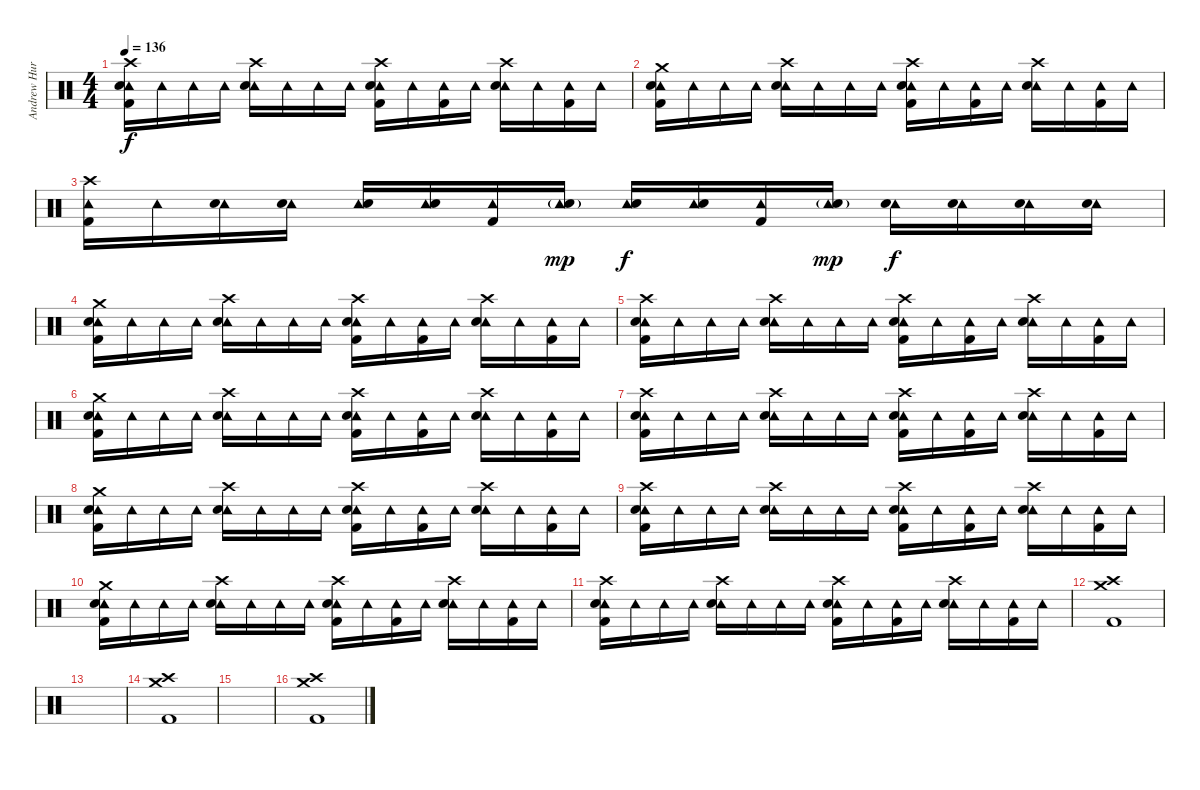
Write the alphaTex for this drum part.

\track ("Andrew Hurley (Drums)" "Andrew Hur") {instrument percussion}
\staff {score}
\articulation defaults
\ts (4 4)
\tempo 136
\clef neutral
\ks c
("Crash high (hit)" "Tambourine (hit)" "Snare (hit) 2" "Kick (hit) 2").16{dy f} "Tambourine (hit)".16 "Tambourine (hit)".16 "Tambourine (hit)".16 ("Crash high (hit)" "Tambourine (hit)" "Snare (hit) 2").16 "Tambourine (hit)".16 "Tambourine (hit)".16 "Tambourine (hit)".16 ("Crash high (hit)" "Tambourine (hit)" "Snare (hit) 2" "Kick (hit) 2").16 "Tambourine (hit)".16 ("Tambourine (hit)" "Kick (hit) 2").16 "Tambourine (hit)".16 ("Crash high (hit)" "Tambourine (hit)" "Snare (hit) 2").16 "Tambourine (hit)".16 ("Tambourine (hit)" "Kick (hit) 2").16 "Tambourine (hit)".16 |
("Crash medium (hit)" "Tambourine (hit)" "Snare (hit) 2" "Kick (hit) 2").16 "Tambourine (hit)".16 "Tambourine (hit)".16 "Tambourine (hit)".16 ("Crash high (hit)" "Tambourine (hit)" "Snare (hit) 2").16 "Tambourine (hit)".16 "Tambourine (hit)".16 "Tambourine (hit)".16 ("Crash high (hit)" "Tambourine (hit)" "Snare (hit) 2" "Kick (hit) 2").16 "Tambourine (hit)".16 ("Tambourine (hit)" "Kick (hit) 2").16 "Tambourine (hit)".16 ("Crash high (hit)" "Tambourine (hit)" "Snare (hit) 2").16 "Tambourine (hit)".16 ("Tambourine (hit)" "Kick (hit) 2").16 "Tambourine (hit)".16 |
("Crash high (hit)" "Tambourine (hit)" "Kick (hit) 2").16 "Tambourine (hit)".16 ("Tambourine (hit)" "Snare (hit) 2").16 ("Tambourine (hit)" "Snare (hit) 2").16 ("Tambourine (hit)" "Snare (hit) 2").16 ("Tambourine (hit)" "Snare (hit) 2").16 ("Tambourine (hit)" "Kick (hit) 2").16 ("Tambourine (hit)" "Snare (hit) 2"{g}).16{dy mp} ("Tambourine (hit)" "Snare (hit) 2").16{dy f} ("Tambourine (hit)" "Snare (hit) 2").16 ("Tambourine (hit)" "Kick (hit) 2").16 ("Tambourine (hit)" "Snare (hit) 2"{g}).16{dy mp} ("Tambourine (hit)" "Snare (hit) 2").16{dy f} ("Tambourine (hit)" "Snare (hit) 2").16 ("Tambourine (hit)" "Snare (hit) 2").16 ("Tambourine (hit)" "Snare (hit) 2").16 |
("Crash medium (hit)" "Tambourine (hit)" "Snare (hit) 2" "Kick (hit) 2").16 "Tambourine (hit)".16 "Tambourine (hit)".16 "Tambourine (hit)".16 ("Crash high (hit)" "Tambourine (hit)" "Snare (hit) 2").16 "Tambourine (hit)".16 "Tambourine (hit)".16 "Tambourine (hit)".16 ("Crash high (hit)" "Tambourine (hit)" "Snare (hit) 2" "Kick (hit) 2").16 "Tambourine (hit)".16 ("Tambourine (hit)" "Kick (hit) 2").16 "Tambourine (hit)".16 ("Crash high (hit)" "Tambourine (hit)" "Snare (hit) 2").16 "Tambourine (hit)".16 ("Tambourine (hit)" "Kick (hit) 2").16 "Tambourine (hit)".16 |
("Crash high (hit)" "Tambourine (hit)" "Snare (hit) 2" "Kick (hit) 2").16 "Tambourine (hit)".16 "Tambourine (hit)".16 "Tambourine (hit)".16 ("Crash high (hit)" "Tambourine (hit)" "Snare (hit) 2").16 "Tambourine (hit)".16 "Tambourine (hit)".16 "Tambourine (hit)".16 ("Crash high (hit)" "Tambourine (hit)" "Snare (hit) 2" "Kick (hit) 2").16 "Tambourine (hit)".16 ("Tambourine (hit)" "Kick (hit) 2").16 "Tambourine (hit)".16 ("Crash high (hit)" "Tambourine (hit)" "Snare (hit) 2").16 "Tambourine (hit)".16 ("Tambourine (hit)" "Kick (hit) 2").16 "Tambourine (hit)".16 |
("Crash medium (hit)" "Tambourine (hit)" "Snare (hit) 2" "Kick (hit) 2").16 "Tambourine (hit)".16 "Tambourine (hit)".16 "Tambourine (hit)".16 ("Crash high (hit)" "Tambourine (hit)" "Snare (hit) 2").16 "Tambourine (hit)".16 "Tambourine (hit)".16 "Tambourine (hit)".16 ("Crash high (hit)" "Tambourine (hit)" "Snare (hit) 2" "Kick (hit) 2").16 "Tambourine (hit)".16 ("Tambourine (hit)" "Kick (hit) 2").16 "Tambourine (hit)".16 ("Crash high (hit)" "Tambourine (hit)" "Snare (hit) 2").16 "Tambourine (hit)".16 ("Tambourine (hit)" "Kick (hit) 2").16 "Tambourine (hit)".16 |
("Crash high (hit)" "Tambourine (hit)" "Snare (hit) 2" "Kick (hit) 2").16 "Tambourine (hit)".16 "Tambourine (hit)".16 "Tambourine (hit)".16 ("Crash high (hit)" "Tambourine (hit)" "Snare (hit) 2").16 "Tambourine (hit)".16 "Tambourine (hit)".16 "Tambourine (hit)".16 ("Crash high (hit)" "Tambourine (hit)" "Snare (hit) 2" "Kick (hit) 2").16 "Tambourine (hit)".16 ("Tambourine (hit)" "Kick (hit) 2").16 "Tambourine (hit)".16 ("Crash high (hit)" "Tambourine (hit)" "Snare (hit) 2").16 "Tambourine (hit)".16 ("Tambourine (hit)" "Kick (hit) 2").16 "Tambourine (hit)".16 |
("Crash medium (hit)" "Tambourine (hit)" "Snare (hit) 2" "Kick (hit) 2").16 "Tambourine (hit)".16 "Tambourine (hit)".16 "Tambourine (hit)".16 ("Crash high (hit)" "Tambourine (hit)" "Snare (hit) 2").16 "Tambourine (hit)".16 "Tambourine (hit)".16 "Tambourine (hit)".16 ("Crash high (hit)" "Tambourine (hit)" "Snare (hit) 2" "Kick (hit) 2").16 "Tambourine (hit)".16 ("Tambourine (hit)" "Kick (hit) 2").16 "Tambourine (hit)".16 ("Crash high (hit)" "Tambourine (hit)" "Snare (hit) 2").16 "Tambourine (hit)".16 ("Tambourine (hit)" "Kick (hit) 2").16 "Tambourine (hit)".16 |
("Crash high (hit)" "Tambourine (hit)" "Snare (hit) 2" "Kick (hit) 2").16 "Tambourine (hit)".16 "Tambourine (hit)".16 "Tambourine (hit)".16 ("Crash high (hit)" "Tambourine (hit)" "Snare (hit) 2").16 "Tambourine (hit)".16 "Tambourine (hit)".16 "Tambourine (hit)".16 ("Crash high (hit)" "Tambourine (hit)" "Snare (hit) 2" "Kick (hit) 2").16 "Tambourine (hit)".16 ("Tambourine (hit)" "Kick (hit) 2").16 "Tambourine (hit)".16 ("Crash high (hit)" "Tambourine (hit)" "Snare (hit) 2").16 "Tambourine (hit)".16 ("Tambourine (hit)" "Kick (hit) 2").16 "Tambourine (hit)".16 |
("Crash medium (hit)" "Tambourine (hit)" "Snare (hit) 2" "Kick (hit) 2").16 "Tambourine (hit)".16 "Tambourine (hit)".16 "Tambourine (hit)".16 ("Crash high (hit)" "Tambourine (hit)" "Snare (hit) 2").16 "Tambourine (hit)".16 "Tambourine (hit)".16 "Tambourine (hit)".16 ("Crash high (hit)" "Tambourine (hit)" "Snare (hit) 2" "Kick (hit) 2").16 "Tambourine (hit)".16 ("Tambourine (hit)" "Kick (hit) 2").16 "Tambourine (hit)".16 ("Crash high (hit)" "Tambourine (hit)" "Snare (hit) 2").16 "Tambourine (hit)".16 ("Tambourine (hit)" "Kick (hit) 2").16 "Tambourine (hit)".16 |
("Crash high (hit)" "Tambourine (hit)" "Snare (hit) 2" "Kick (hit) 2").16 "Tambourine (hit)".16 "Tambourine (hit)".16 "Tambourine (hit)".16 ("Crash high (hit)" "Tambourine (hit)" "Snare (hit) 2").16 "Tambourine (hit)".16 "Tambourine (hit)".16 "Tambourine (hit)".16 ("Crash high (hit)" "Tambourine (hit)" "Snare (hit) 2" "Kick (hit) 2").16 "Tambourine (hit)".16 ("Tambourine (hit)" "Kick (hit) 2").16 "Tambourine (hit)".16 ("Crash high (hit)" "Tambourine (hit)" "Snare (hit) 2").16 "Tambourine (hit)".16 ("Tambourine (hit)" "Kick (hit) 2").16 "Tambourine (hit)".16 |
("Crash high (hit)" "Crash medium (hit)" "Kick (hit) 2").1 |
|
("Crash high (hit)" "Crash medium (hit)" "Kick (hit) 2").1 |
|
("Crash high (hit)" "Crash medium (hit)" "Kick (hit) 2").1
